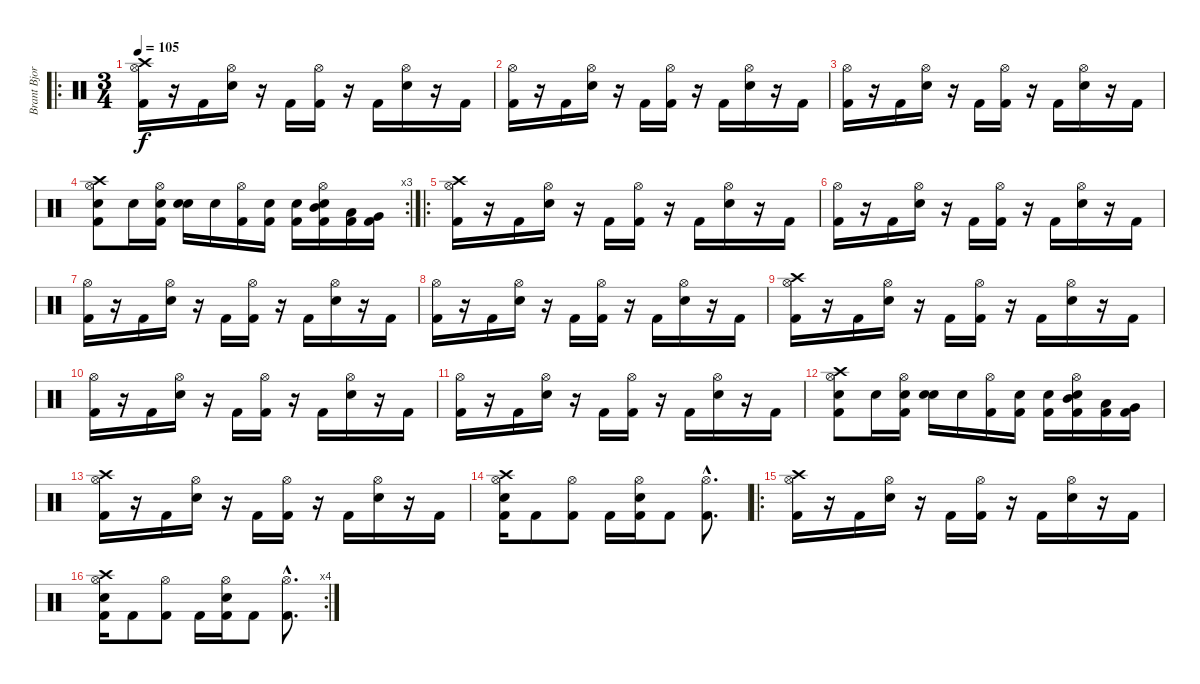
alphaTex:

\track ("Brant Bjork" "Brant Bjor") {instrument percussion}
\staff {score}
\articulation defaults
\ro
\ts (3 4)
\tempo 105
\clef neutral
\ks c
("Crash high (hit)" "Hi-Hat (open)" "Kick (hit) 2").16{dy f} r.16 "Kick (hit) 2".16 ("Electric Snare (hit)" "Hi-Hat (open)").16 r.16 "Kick (hit) 2".16 ("Hi-Hat (open)" "Kick (hit) 2").16 r.16 "Kick (hit) 2".16 ("Electric Snare (hit)" "Hi-Hat (open)").16 r.16 "Kick (hit) 2".16 |
("Hi-Hat (open)" "Kick (hit) 2").16 r.16 "Kick (hit) 2".16 ("Electric Snare (hit)" "Hi-Hat (open)").16 r.16 "Kick (hit) 2".16 ("Hi-Hat (open)" "Kick (hit) 2").16 r.16 "Kick (hit) 2".16 ("Electric Snare (hit)" "Hi-Hat (open)").16 r.16 "Kick (hit) 2".16 |
("Hi-Hat (open)" "Kick (hit) 2").16 r.16 "Kick (hit) 2".16 ("Electric Snare (hit)" "Hi-Hat (open)").16 r.16 "Kick (hit) 2".16 ("Hi-Hat (open)" "Kick (hit) 2").16 r.16 "Kick (hit) 2".16 ("Electric Snare (hit)" "Hi-Hat (open)").16 r.16 "Kick (hit) 2".16 |
\rc 3
("Electric Snare (hit)" "Crash high (hit)" "Hi-Hat (open)" "Kick (hit) 2").8 "Electric Snare (hit)".16 ("Electric Snare (hit)" "Hi-Hat (open)" "Kick (hit) 2").16 ("Electric Snare (hit)" "Electric Snare (hit)").16 "Electric Snare (hit)".16 ("Hi-Hat (open)" "Kick (hit) 2").16 ("Electric Snare (hit)" "Kick (hit) 2").16 ("Electric Snare (hit)" "Kick (hit) 2").16 ("Electric Snare (hit)" "Mid Tom (hit)" "Hi-Hat (open)" "Kick (hit) 2").16 ("Low Tom (hit)" "Kick (hit) 2").16 ("Very Low Tom (hit)" "Kick (hit) 2").16 |
\ro
("Crash high (hit)" "Hi-Hat (open)" "Kick (hit) 2").16 r.16 "Kick (hit) 2".16 ("Electric Snare (hit)" "Hi-Hat (open)").16 r.16 "Kick (hit) 2".16 ("Hi-Hat (open)" "Kick (hit) 2").16 r.16 "Kick (hit) 2".16 ("Electric Snare (hit)" "Hi-Hat (open)").16 r.16 "Kick (hit) 2".16 |
("Hi-Hat (open)" "Kick (hit) 2").16 r.16 "Kick (hit) 2".16 ("Electric Snare (hit)" "Hi-Hat (open)").16 r.16 "Kick (hit) 2".16 ("Hi-Hat (open)" "Kick (hit) 2").16 r.16 "Kick (hit) 2".16 ("Electric Snare (hit)" "Hi-Hat (open)").16 r.16 "Kick (hit) 2".16 |
("Hi-Hat (open)" "Kick (hit) 2").16 r.16 "Kick (hit) 2".16 ("Electric Snare (hit)" "Hi-Hat (open)").16 r.16 "Kick (hit) 2".16 ("Hi-Hat (open)" "Kick (hit) 2").16 r.16 "Kick (hit) 2".16 ("Electric Snare (hit)" "Hi-Hat (open)").16 r.16 "Kick (hit) 2".16 |
("Hi-Hat (open)" "Kick (hit) 2").16 r.16 "Kick (hit) 2".16 ("Electric Snare (hit)" "Hi-Hat (open)").16 r.16 "Kick (hit) 2".16 ("Hi-Hat (open)" "Kick (hit) 2").16 r.16 "Kick (hit) 2".16 ("Electric Snare (hit)" "Hi-Hat (open)").16 r.16 "Kick (hit) 2".16 |
("Crash high (hit)" "Hi-Hat (open)" "Kick (hit) 2").16 r.16 "Kick (hit) 2".16 ("Electric Snare (hit)" "Hi-Hat (open)").16 r.16 "Kick (hit) 2".16 ("Hi-Hat (open)" "Kick (hit) 2").16 r.16 "Kick (hit) 2".16 ("Electric Snare (hit)" "Hi-Hat (open)").16 r.16 "Kick (hit) 2".16 |
("Hi-Hat (open)" "Kick (hit) 2").16 r.16 "Kick (hit) 2".16 ("Electric Snare (hit)" "Hi-Hat (open)").16 r.16 "Kick (hit) 2".16 ("Hi-Hat (open)" "Kick (hit) 2").16 r.16 "Kick (hit) 2".16 ("Electric Snare (hit)" "Hi-Hat (open)").16 r.16 "Kick (hit) 2".16 |
("Hi-Hat (open)" "Kick (hit) 2").16 r.16 "Kick (hit) 2".16 ("Electric Snare (hit)" "Hi-Hat (open)").16 r.16 "Kick (hit) 2".16 ("Hi-Hat (open)" "Kick (hit) 2").16 r.16 "Kick (hit) 2".16 ("Electric Snare (hit)" "Hi-Hat (open)").16 r.16 "Kick (hit) 2".16 |
("Electric Snare (hit)" "Crash high (hit)" "Hi-Hat (open)" "Kick (hit) 2").8 "Electric Snare (hit)".16 ("Electric Snare (hit)" "Hi-Hat (open)" "Kick (hit) 2").16 ("Electric Snare (hit)" "Electric Snare (hit)").16 "Electric Snare (hit)".16 ("Hi-Hat (open)" "Kick (hit) 2").16 ("Electric Snare (hit)" "Kick (hit) 2").16 ("Electric Snare (hit)" "Kick (hit) 2").16 ("Electric Snare (hit)" "Mid Tom (hit)" "Hi-Hat (open)" "Kick (hit) 2").16 ("Low Tom (hit)" "Kick (hit) 2").16 ("Very Low Tom (hit)" "Kick (hit) 2").16 |
("Crash high (hit)" "Hi-Hat (open)" "Kick (hit) 2").16 r.16 "Kick (hit) 2".16 ("Electric Snare (hit)" "Hi-Hat (open)").16 r.16 "Kick (hit) 2".16 ("Hi-Hat (open)" "Kick (hit) 2").16 r.16 "Kick (hit) 2".16 ("Electric Snare (hit)" "Hi-Hat (open)").16 r.16 "Kick (hit) 2".16 |
("Electric Snare (hit)" "Crash high (hit)" "Hi-Hat (open)" "Kick (hit) 2").16 "Kick (hit) 2".8 ("Hi-Hat (open)" "Kick (hit) 2").8 "Kick (hit) 2".16 ("Electric Snare (hit)" "Hi-Hat (open)" "Kick (hit) 2").16 "Kick (hit) 2".8 ("Hi-Hat (open)"{hac} "Kick (hit) 2"{hac}).8{d} |
\ro
("Crash high (hit)" "Hi-Hat (open)" "Kick (hit) 2").16 r.16 "Kick (hit) 2".16 ("Electric Snare (hit)" "Hi-Hat (open)").16 r.16 "Kick (hit) 2".16 ("Hi-Hat (open)" "Kick (hit) 2").16 r.16 "Kick (hit) 2".16 ("Electric Snare (hit)" "Hi-Hat (open)").16 r.16 "Kick (hit) 2".16 |
\rc 4
("Electric Snare (hit)" "Crash high (hit)" "Hi-Hat (open)" "Kick (hit) 2").16 "Kick (hit) 2".8 ("Hi-Hat (open)" "Kick (hit) 2").8 "Kick (hit) 2".16 ("Electric Snare (hit)" "Hi-Hat (open)" "Kick (hit) 2").16 "Kick (hit) 2".8 ("Hi-Hat (open)"{hac} "Kick (hit) 2"{hac}).8{d}
